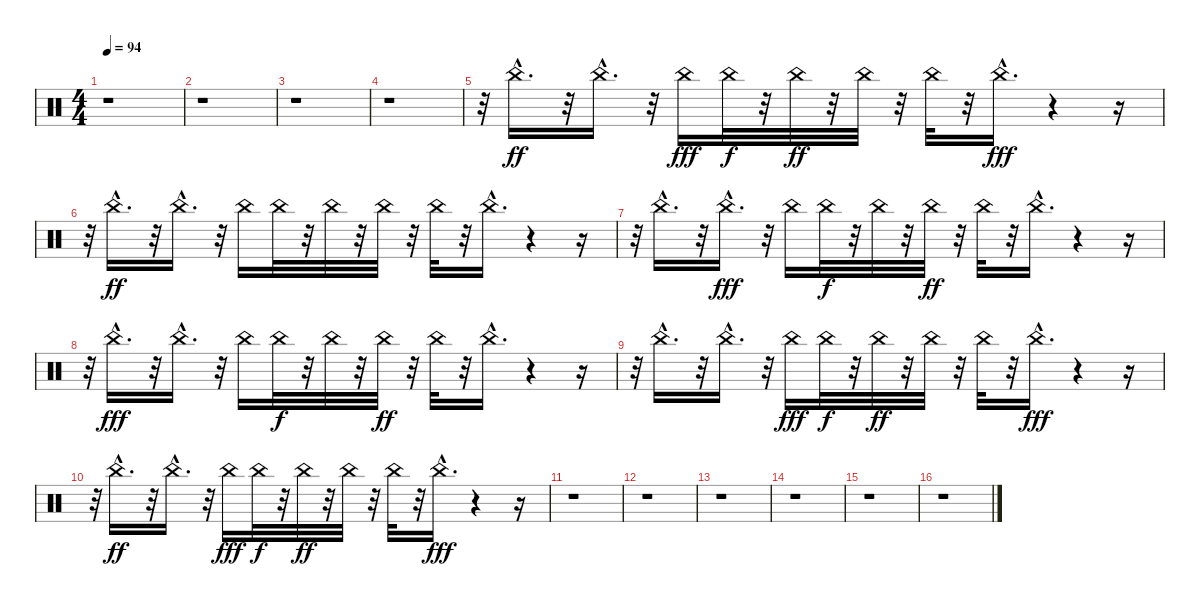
\track "" {instrument percussion}
\staff {score}
\articulation defaults
\ts (4 4)
\tempo 94
\clef neutral
\ks c
r.1{dy fff} |
r.1 |
r.1 |
r.1 |
r.32 "China (choke)"{hac}.16{d dy ff} r.32 "China (choke)"{hac}.16{d} r.32 "China (choke)".16{dy fff} "China (choke)".32{dy f} r.32 "China (choke)".32{dy ff} r.32 "China (choke)".32 r.32 "China (choke)".32 r.32 "China (choke)"{hac}.16{d dy fff} r.4 r.16 |
r.32 "China (choke)"{hac}.16{d dy ff} r.32 "China (choke)"{hac}.16{d} r.32 "China (choke)".16 "China (choke)".32 r.32 "China (choke)".32 r.32 "China (choke)".32 r.32 "China (choke)".32 r.32 "China (choke)"{hac}.16{d} r.4 r.16 |
r.32 "China (choke)"{hac}.16{d} r.32 "China (choke)"{hac}.16{d dy fff} r.32 "China (choke)".16 "China (choke)".32{dy f} r.32 "China (choke)".32 r.32 "China (choke)".32{dy ff} r.32 "China (choke)".32 r.32 "China (choke)"{hac}.16{d} r.4 r.16 |
r.32 "China (choke)"{hac}.16{d dy fff} r.32 "China (choke)"{hac}.16{d} r.32 "China (choke)".16 "China (choke)".32{dy f} r.32 "China (choke)".32 r.32 "China (choke)".32{dy ff} r.32 "China (choke)".32 r.32 "China (choke)"{hac}.16{d} r.4 r.16 |
r.32 "China (choke)"{hac}.16{d} r.32 "China (choke)"{hac}.16{d} r.32 "China (choke)".16{dy fff} "China (choke)".32{dy f} r.32 "China (choke)".32{dy ff} r.32 "China (choke)".32 r.32 "China (choke)".32 r.32 "China (choke)"{hac}.16{d dy fff} r.4 r.16 |
r.32 "China (choke)"{hac}.16{d dy ff} r.32 "China (choke)"{hac}.16{d} r.32 "China (choke)".16{dy fff} "China (choke)".32{dy f} r.32 "China (choke)".32{dy ff} r.32 "China (choke)".32 r.32 "China (choke)".32 r.32 "China (choke)"{hac}.16{d dy fff} r.4 r.16 |
r.1 |
r.1 |
r.1 |
r.1 |
r.1 |
r.1
